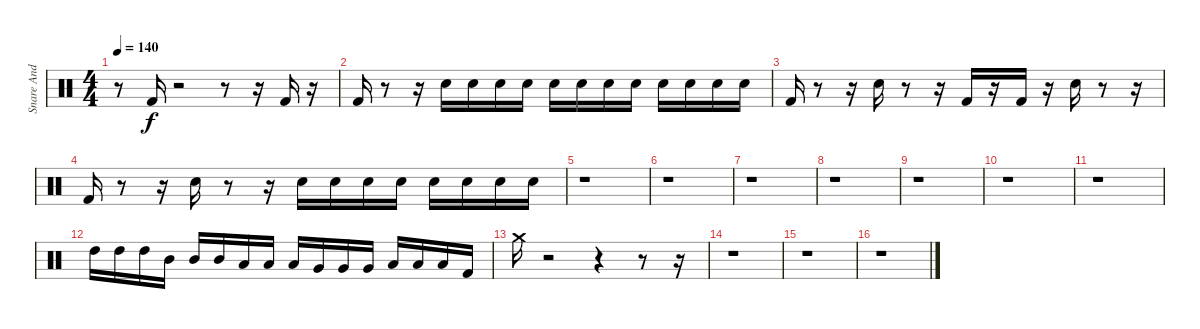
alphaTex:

\track ("Snare And Bass Drums" "Snare And ") {instrument percussion}
\staff {score}
\articulation defaults
\ts (4 4)
\tempo 140
\clef neutral
\ks c
r.8{dy f} "Kick (hit) 2".16 r.2 r.8 r.16 "Kick (hit) 2".16 r.16 |
"Kick (hit) 2".16 r.8 r.16 "Snare (hit) 2".16 "Snare (hit) 2".16 "Snare (hit) 2".16 "Snare (hit) 2".16 "Snare (hit) 2".16 "Snare (hit) 2".16 "Snare (hit) 2".16 "Snare (hit) 2".16 "Snare (hit) 2".16 "Snare (hit) 2".16 "Snare (hit) 2".16 "Snare (hit) 2".16 |
"Kick (hit) 2".16 r.8 r.16 "Snare (hit) 2".16 r.8 r.16 "Kick (hit) 2".16 r.16 "Kick (hit) 2".16 r.16 "Snare (hit) 2".16 r.8 r.16 |
"Kick (hit) 2".16 r.8 r.16 "Snare (hit) 2".16 r.8 r.16 "Snare (hit) 2".16 "Snare (hit) 2".16 "Snare (hit) 2".16 "Snare (hit) 2".16 "Snare (hit) 2".16 "Snare (hit) 2".16 "Snare (hit) 2".16 "Snare (hit) 2".16 |
r.1 |
r.1 |
r.1 |
r.1 |
r.1 |
r.1 |
r.1 |
"High Tom (hit)".16 "High Tom (hit)".16 "High Tom (hit)".16 "Mid Tom (hit)".16 "Mid Tom (hit)".16 "Mid Tom (hit)".16 "Low Tom (hit)".16 "Low Tom (hit)".16 "Low Tom (hit)".16 "Very Low Tom (hit)".16 "Very Low Tom (hit)".16 "Very Low Tom (hit)".16 "Low Floor Tom (hit)".16 "Low Floor Tom (hit)".16 "Low Floor Tom (hit)".16 "Kick (hit) 2".16 |
"Crash medium (hit)".16 r.2 r.4 r.8 r.16 |
r.1 |
r.1 |
r.1
